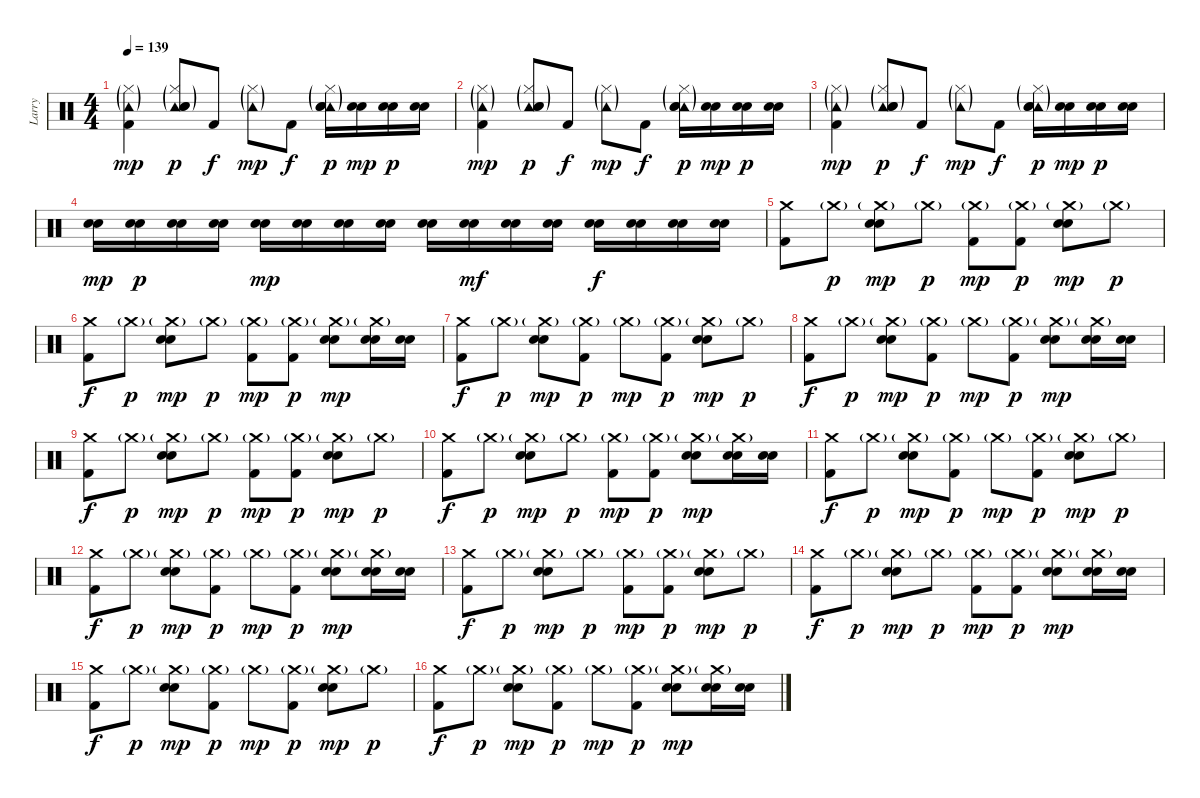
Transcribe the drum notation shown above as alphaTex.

\track ("Larry" "Larry") {instrument percussion}
\staff {score}
\articulation defaults
\ts (4 4)
\tempo 139
\clef neutral
\ks c
("Tambourine (hit)"{g} "Kick (hit) 2" "Hi-Hat (closed)"{g}).4{dy mp} ("Tambourine (hit)"{g} "Snare (hit) 2" "Electric Snare (hit)" "Hi-Hat (closed)"{g}).8{dy p} "Kick (hit) 2".8{dy f} ("Tambourine (hit)"{g} "Hi-Hat (closed)"{g}).8{dy mp} "Kick (hit) 2".8{dy f} ("Tambourine (hit)"{g} "Snare (hit) 2" "Electric Snare (hit)" "Hi-Hat (closed)"{g}).16{dy p} ("Snare (hit) 2" "Electric Snare (hit)").16{dy mp} ("Snare (hit) 2" "Electric Snare (hit)").16{dy p} ("Snare (hit) 2" "Electric Snare (hit)").16 |
("Tambourine (hit)"{g} "Kick (hit) 2" "Hi-Hat (closed)"{g}).4{dy mp} ("Tambourine (hit)"{g} "Snare (hit) 2" "Electric Snare (hit)" "Hi-Hat (closed)"{g}).8{dy p} "Kick (hit) 2".8{dy f} ("Tambourine (hit)"{g} "Hi-Hat (closed)"{g}).8{dy mp} "Kick (hit) 2".8{dy f} ("Tambourine (hit)"{g} "Snare (hit) 2" "Electric Snare (hit)" "Hi-Hat (closed)"{g}).16{dy p} ("Snare (hit) 2" "Electric Snare (hit)").16{dy mp} ("Snare (hit) 2" "Electric Snare (hit)").16{dy p} ("Snare (hit) 2" "Electric Snare (hit)").16 |
("Tambourine (hit)"{g} "Kick (hit) 2" "Hi-Hat (closed)"{g}).4{dy mp} ("Tambourine (hit)"{g} "Snare (hit) 2" "Electric Snare (hit)" "Hi-Hat (closed)"{g}).8{dy p} "Kick (hit) 2".8{dy f} ("Tambourine (hit)"{g} "Hi-Hat (closed)"{g}).8{dy mp} "Kick (hit) 2".8{dy f} ("Tambourine (hit)"{g} "Snare (hit) 2" "Electric Snare (hit)" "Hi-Hat (closed)"{g}).16{dy p} ("Snare (hit) 2" "Electric Snare (hit)").16{dy mp} ("Snare (hit) 2" "Electric Snare (hit)").16{dy p} ("Snare (hit) 2" "Electric Snare (hit)").16 |
("Snare (hit) 2" "Electric Snare (hit)").16{dy mp} ("Snare (hit) 2" "Electric Snare (hit)").16{dy p} ("Snare (hit) 2" "Electric Snare (hit)").16 ("Snare (hit) 2" "Electric Snare (hit)").16 ("Snare (hit) 2" "Electric Snare (hit)").16{dy mp} ("Snare (hit) 2" "Electric Snare (hit)").16 ("Snare (hit) 2" "Electric Snare (hit)").16 ("Snare (hit) 2" "Electric Snare (hit)").16 ("Snare (hit) 2" "Electric Snare (hit)").16 ("Snare (hit) 2" "Electric Snare (hit)").16{dy mf} ("Snare (hit) 2" "Electric Snare (hit)").16 ("Snare (hit) 2" "Electric Snare (hit)").16 ("Snare (hit) 2" "Electric Snare (hit)").16{dy f} ("Snare (hit) 2" "Electric Snare (hit)").16 ("Snare (hit) 2" "Electric Snare (hit)").16 ("Snare (hit) 2" "Electric Snare (hit)").16 |
("Crash medium (hit)" "Kick (hit) 2").8 "Crash medium (hit)"{g}.8{dy p} ("Crash medium (hit)"{g} "Snare (hit) 2" "Electric Snare (hit)").8{dy mp} "Crash medium (hit)"{g}.8{dy p} ("Crash medium (hit)"{g} "Kick (hit) 2").8{dy mp} ("Crash medium (hit)"{g} "Kick (hit) 2").8{dy p} ("Crash medium (hit)"{g} "Snare (hit) 2" "Electric Snare (hit)").8{dy mp} "Crash medium (hit)"{g}.8{dy p} |
("Crash medium (hit)" "Kick (hit) 2").8{dy f} "Crash medium (hit)"{g}.8{dy p} ("Crash medium (hit)"{g} "Snare (hit) 2" "Electric Snare (hit)").8{dy mp} "Crash medium (hit)"{g}.8{dy p} ("Crash medium (hit)"{g} "Kick (hit) 2").8{dy mp} ("Crash medium (hit)"{g} "Kick (hit) 2").8{dy p} ("Crash medium (hit)"{g} "Snare (hit) 2" "Electric Snare (hit)").8{dy mp} ("Crash medium (hit)"{g} "Snare (hit) 2" "Electric Snare (hit)").16 ("Snare (hit) 2" "Electric Snare (hit)").16 |
("Crash medium (hit)" "Kick (hit) 2").8{dy f} "Crash medium (hit)"{g}.8{dy p} ("Crash medium (hit)"{g} "Snare (hit) 2" "Electric Snare (hit)").8{dy mp} ("Crash medium (hit)"{g} "Kick (hit) 2").8{dy p} "Crash medium (hit)"{g}.8{dy mp} ("Crash medium (hit)"{g} "Kick (hit) 2").8{dy p} ("Crash medium (hit)"{g} "Snare (hit) 2" "Electric Snare (hit)").8{dy mp} "Crash medium (hit)"{g}.8{dy p} |
("Crash medium (hit)" "Kick (hit) 2").8{dy f} "Crash medium (hit)"{g}.8{dy p} ("Crash medium (hit)"{g} "Snare (hit) 2" "Electric Snare (hit)").8{dy mp} ("Crash medium (hit)"{g} "Kick (hit) 2").8{dy p} "Crash medium (hit)"{g}.8{dy mp} ("Crash medium (hit)"{g} "Kick (hit) 2").8{dy p} ("Crash medium (hit)"{g} "Snare (hit) 2" "Electric Snare (hit)").8{dy mp} ("Crash medium (hit)"{g} "Snare (hit) 2" "Electric Snare (hit)").16 ("Snare (hit) 2" "Electric Snare (hit)").16 |
("Crash medium (hit)" "Kick (hit) 2").8{dy f} "Crash medium (hit)"{g}.8{dy p} ("Crash medium (hit)"{g} "Snare (hit) 2" "Electric Snare (hit)").8{dy mp} "Crash medium (hit)"{g}.8{dy p} ("Crash medium (hit)"{g} "Kick (hit) 2").8{dy mp} ("Crash medium (hit)"{g} "Kick (hit) 2").8{dy p} ("Crash medium (hit)"{g} "Snare (hit) 2" "Electric Snare (hit)").8{dy mp} "Crash medium (hit)"{g}.8{dy p} |
("Crash medium (hit)" "Kick (hit) 2").8{dy f} "Crash medium (hit)"{g}.8{dy p} ("Crash medium (hit)"{g} "Snare (hit) 2" "Electric Snare (hit)").8{dy mp} "Crash medium (hit)"{g}.8{dy p} ("Crash medium (hit)"{g} "Kick (hit) 2").8{dy mp} ("Crash medium (hit)"{g} "Kick (hit) 2").8{dy p} ("Crash medium (hit)"{g} "Snare (hit) 2" "Electric Snare (hit)").8{dy mp} ("Crash medium (hit)"{g} "Snare (hit) 2" "Electric Snare (hit)").16 ("Snare (hit) 2" "Electric Snare (hit)").16 |
("Crash medium (hit)" "Kick (hit) 2").8{dy f} "Crash medium (hit)"{g}.8{dy p} ("Crash medium (hit)"{g} "Snare (hit) 2" "Electric Snare (hit)").8{dy mp} ("Crash medium (hit)"{g} "Kick (hit) 2").8{dy p} "Crash medium (hit)"{g}.8{dy mp} ("Crash medium (hit)"{g} "Kick (hit) 2").8{dy p} ("Crash medium (hit)"{g} "Snare (hit) 2" "Electric Snare (hit)").8{dy mp} "Crash medium (hit)"{g}.8{dy p} |
("Crash medium (hit)" "Kick (hit) 2").8{dy f} "Crash medium (hit)"{g}.8{dy p} ("Crash medium (hit)"{g} "Snare (hit) 2" "Electric Snare (hit)").8{dy mp} ("Crash medium (hit)"{g} "Kick (hit) 2").8{dy p} "Crash medium (hit)"{g}.8{dy mp} ("Crash medium (hit)"{g} "Kick (hit) 2").8{dy p} ("Crash medium (hit)"{g} "Snare (hit) 2" "Electric Snare (hit)").8{dy mp} ("Crash medium (hit)"{g} "Snare (hit) 2" "Electric Snare (hit)").16 ("Snare (hit) 2" "Electric Snare (hit)").16 |
("Crash medium (hit)" "Kick (hit) 2").8{dy f} "Crash medium (hit)"{g}.8{dy p} ("Crash medium (hit)"{g} "Snare (hit) 2" "Electric Snare (hit)").8{dy mp} "Crash medium (hit)"{g}.8{dy p} ("Crash medium (hit)"{g} "Kick (hit) 2").8{dy mp} ("Crash medium (hit)"{g} "Kick (hit) 2").8{dy p} ("Crash medium (hit)"{g} "Snare (hit) 2" "Electric Snare (hit)").8{dy mp} "Crash medium (hit)"{g}.8{dy p} |
("Crash medium (hit)" "Kick (hit) 2").8{dy f} "Crash medium (hit)"{g}.8{dy p} ("Crash medium (hit)"{g} "Snare (hit) 2" "Electric Snare (hit)").8{dy mp} "Crash medium (hit)"{g}.8{dy p} ("Crash medium (hit)"{g} "Kick (hit) 2").8{dy mp} ("Crash medium (hit)"{g} "Kick (hit) 2").8{dy p} ("Crash medium (hit)"{g} "Snare (hit) 2" "Electric Snare (hit)").8{dy mp} ("Crash medium (hit)"{g} "Snare (hit) 2" "Electric Snare (hit)").16 ("Snare (hit) 2" "Electric Snare (hit)").16 |
("Crash medium (hit)" "Kick (hit) 2").8{dy f} "Crash medium (hit)"{g}.8{dy p} ("Crash medium (hit)"{g} "Snare (hit) 2" "Electric Snare (hit)").8{dy mp} ("Crash medium (hit)"{g} "Kick (hit) 2").8{dy p} "Crash medium (hit)"{g}.8{dy mp} ("Crash medium (hit)"{g} "Kick (hit) 2").8{dy p} ("Crash medium (hit)"{g} "Snare (hit) 2" "Electric Snare (hit)").8{dy mp} "Crash medium (hit)"{g}.8{dy p} |
("Crash medium (hit)" "Kick (hit) 2").8{dy f} "Crash medium (hit)"{g}.8{dy p} ("Crash medium (hit)"{g} "Snare (hit) 2" "Electric Snare (hit)").8{dy mp} ("Crash medium (hit)"{g} "Kick (hit) 2").8{dy p} "Crash medium (hit)"{g}.8{dy mp} ("Crash medium (hit)"{g} "Kick (hit) 2").8{dy p} ("Crash medium (hit)"{g} "Snare (hit) 2" "Electric Snare (hit)").8{dy mp} ("Crash medium (hit)"{g} "Snare (hit) 2" "Electric Snare (hit)").16 ("Snare (hit) 2" "Electric Snare (hit)").16
